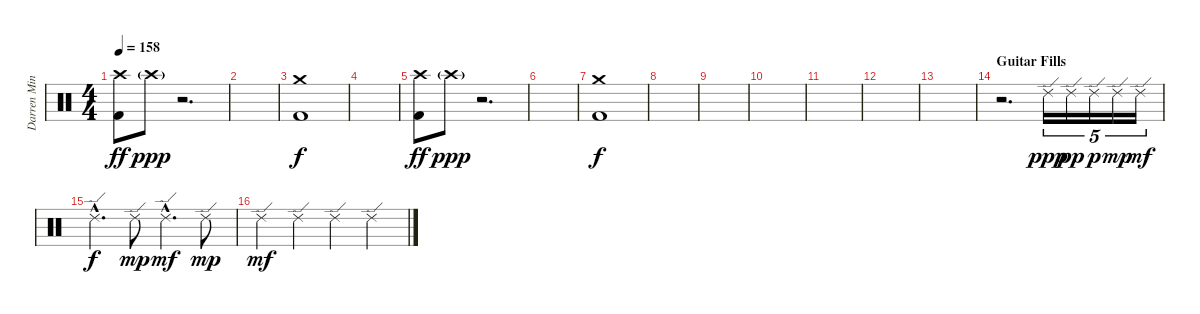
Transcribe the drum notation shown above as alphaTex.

\track ("Darren Minter" "Darren Min") {instrument percussion}
\staff {score}
\articulation defaults
\ts (4 4)
\tempo 158
\clef neutral
\ks c
("Kick (hit) 2" "Crash high (hit)").8{dy ff} "Crash high (hit)"{g}.8{dy ppp} r.2{d} |
|
("Kick (hit) 2" "Crash medium (hit)").1{dy f} |
|
("Kick (hit) 2" "Crash high (hit)").8{dy ff} "Crash high (hit)"{g}.8{dy ppp} r.2{d} |
|
("Kick (hit) 2" "Crash medium (hit)").1{dy f} |
|
|
|
|
|
|
\section ("" "Guitar Fills")
r.2{d} "Ride (edge) 2".16{tu (5 4) dy ppp} "Ride (edge) 2".16{tu (5 4) dy pp} "Ride (edge) 2".16{tu (5 4) dy p} "Ride (edge) 2".16{tu (5 4) dy mp} "Ride (edge) 2".16{tu (5 4) dy mf} |
"Ride (edge) 2"{hac}.4{d dy f} "Ride (edge) 2".8{dy mp} "Ride (edge) 2"{hac}.4{d dy mf} "Ride (edge) 2".8{dy mp} |
"Ride (edge) 2".4{dy mf} "Ride (edge) 2".4 "Ride (edge) 2".4 "Ride (edge) 2".4
